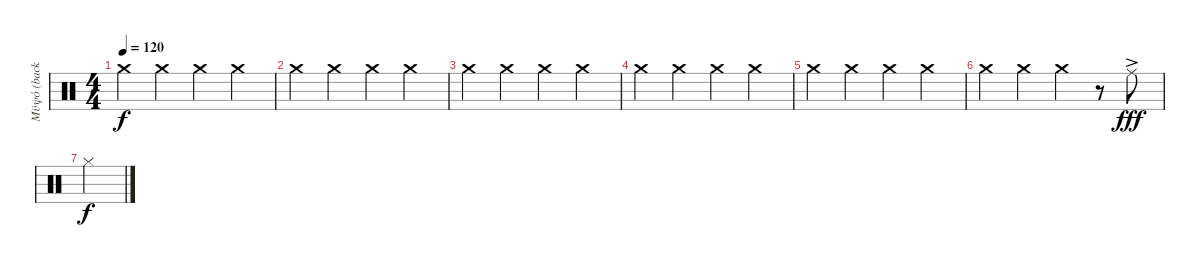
\track ("Μϋψό (back percussion)" "Μϋψό (back") {instrument percussion}
\staff {score}
\articulation defaults
\ts (4 4)
\tempo 120
\clef neutral
\ks c "Crash medium (hit)".4{dy f} "Crash medium (hit)".4 "Crash medium (hit)".4 "Crash medium (hit)".4
|
"Crash medium (hit)".4 "Crash medium (hit)".4 "Crash medium (hit)".4 "Crash medium (hit)".4 |
"Crash medium (hit)".4 "Crash medium (hit)".4 "Crash medium (hit)".4 "Crash medium (hit)".4 |
"Crash medium (hit)".4 "Crash medium (hit)".4 "Crash medium (hit)".4 "Crash medium (hit)".4 |
"Crash medium (hit)".4 "Crash medium (hit)".4 "Crash medium (hit)".4 "Crash medium (hit)".4 |
"Crash medium (hit)".4 "Crash medium (hit)".4 "Crash medium (hit)".4 r.8 "Ride (middle)"{ac}.8{dy fff} |
"Hi-Hat (closed)".4{dy f}
